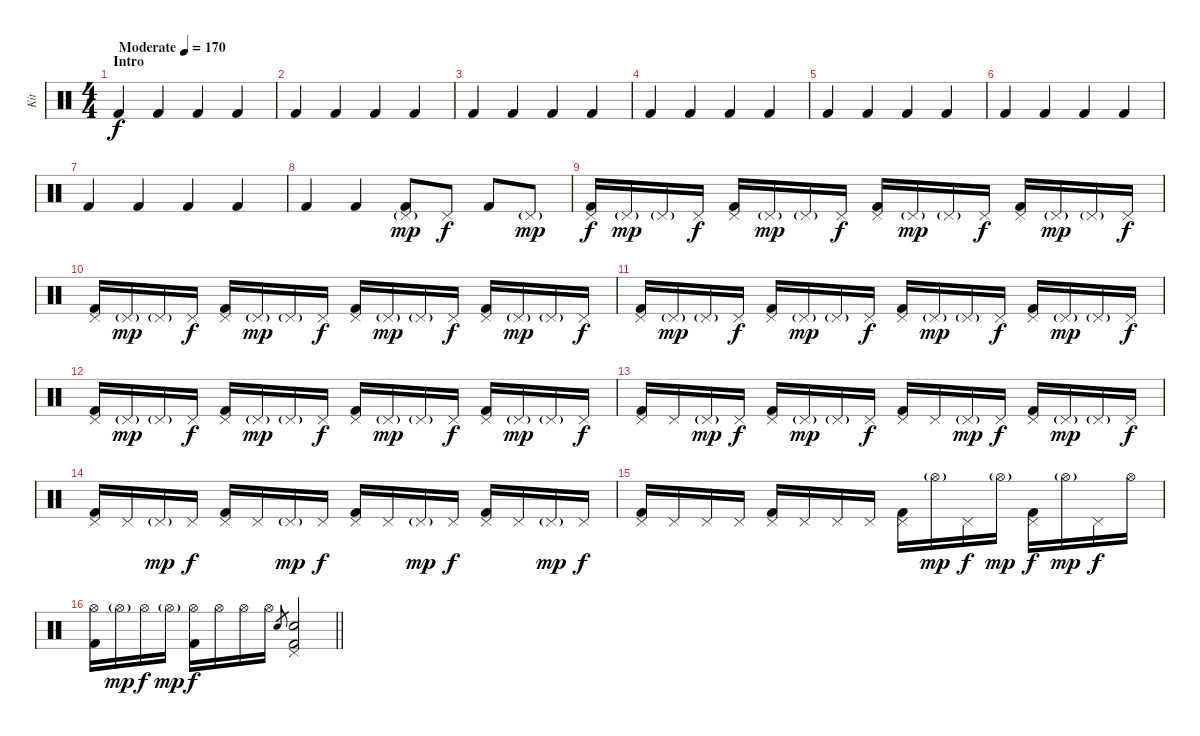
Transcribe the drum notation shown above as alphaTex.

\track ("Kit" "Kit") {instrument percussion}
\staff {score}
\articulation defaults
\ts (4 4)
\section ("" "Intro")
\tempo (170 "Moderate")
\clef neutral
\ks c "Kick (hit) 2".4{dy f} "Kick (hit) 2".4 "Kick (hit) 2".4 "Kick (hit) 2".4
|
"Kick (hit) 2".4 "Kick (hit) 2".4 "Kick (hit) 2".4 "Kick (hit) 2".4 |
"Kick (hit) 2".4 "Kick (hit) 2".4 "Kick (hit) 2".4 "Kick (hit) 2".4 |
"Kick (hit) 2".4 "Kick (hit) 2".4 "Kick (hit) 2".4 "Kick (hit) 2".4 |
"Kick (hit) 2".4 "Kick (hit) 2".4 "Kick (hit) 2".4 "Kick (hit) 2".4 |
"Kick (hit) 2".4 "Kick (hit) 2".4 "Kick (hit) 2".4 "Kick (hit) 2".4 |
"Kick (hit) 2".4 "Kick (hit) 2".4 "Kick (hit) 2".4 "Kick (hit) 2".4 |
"Kick (hit) 2".4 "Kick (hit) 2".4 ("Pedal Hi-Hat (hit)"{g} "Kick (hit) 2").8{dy mp} "Pedal Hi-Hat (hit)".8{dy f} "Kick (hit) 2".8 "Pedal Hi-Hat (hit)"{g}.8{dy mp} |
("Pedal Hi-Hat (hit)" "Kick (hit) 2").16{dy f} "Pedal Hi-Hat (hit)"{g}.16{dy mp} "Pedal Hi-Hat (hit)"{g}.16 "Pedal Hi-Hat (hit)".16{dy f} ("Pedal Hi-Hat (hit)" "Kick (hit) 2").16 "Pedal Hi-Hat (hit)"{g}.16{dy mp} "Pedal Hi-Hat (hit)"{g}.16 "Pedal Hi-Hat (hit)".16{dy f} ("Pedal Hi-Hat (hit)" "Kick (hit) 2").16 "Pedal Hi-Hat (hit)"{g}.16{dy mp} "Pedal Hi-Hat (hit)"{g}.16 "Pedal Hi-Hat (hit)".16{dy f} ("Pedal Hi-Hat (hit)" "Kick (hit) 2").16 "Pedal Hi-Hat (hit)"{g}.16{dy mp} "Pedal Hi-Hat (hit)"{g}.16 "Pedal Hi-Hat (hit)".16{dy f} |
("Pedal Hi-Hat (hit)" "Kick (hit) 2").16 "Pedal Hi-Hat (hit)"{g}.16{dy mp} "Pedal Hi-Hat (hit)"{g}.16 "Pedal Hi-Hat (hit)".16{dy f} ("Pedal Hi-Hat (hit)" "Kick (hit) 2").16 "Pedal Hi-Hat (hit)"{g}.16{dy mp} "Pedal Hi-Hat (hit)"{g}.16 "Pedal Hi-Hat (hit)".16{dy f} ("Pedal Hi-Hat (hit)" "Kick (hit) 2").16 "Pedal Hi-Hat (hit)"{g}.16{dy mp} "Pedal Hi-Hat (hit)"{g}.16 "Pedal Hi-Hat (hit)".16{dy f} ("Pedal Hi-Hat (hit)" "Kick (hit) 2").16 "Pedal Hi-Hat (hit)"{g}.16{dy mp} "Pedal Hi-Hat (hit)"{g}.16 "Pedal Hi-Hat (hit)".16{dy f} |
("Pedal Hi-Hat (hit)" "Kick (hit) 2").16 "Pedal Hi-Hat (hit)"{g}.16{dy mp} "Pedal Hi-Hat (hit)"{g}.16 "Pedal Hi-Hat (hit)".16{dy f} ("Pedal Hi-Hat (hit)" "Kick (hit) 2").16 "Pedal Hi-Hat (hit)"{g}.16{dy mp} "Pedal Hi-Hat (hit)"{g}.16 "Pedal Hi-Hat (hit)".16{dy f} ("Pedal Hi-Hat (hit)" "Kick (hit) 2").16 "Pedal Hi-Hat (hit)"{g}.16{dy mp} "Pedal Hi-Hat (hit)"{g}.16 "Pedal Hi-Hat (hit)".16{dy f} ("Pedal Hi-Hat (hit)" "Kick (hit) 2").16 "Pedal Hi-Hat (hit)"{g}.16{dy mp} "Pedal Hi-Hat (hit)"{g}.16 "Pedal Hi-Hat (hit)".16{dy f} |
("Pedal Hi-Hat (hit)" "Kick (hit) 2").16 "Pedal Hi-Hat (hit)"{g}.16{dy mp} "Pedal Hi-Hat (hit)"{g}.16 "Pedal Hi-Hat (hit)".16{dy f} ("Pedal Hi-Hat (hit)" "Kick (hit) 2").16 "Pedal Hi-Hat (hit)"{g}.16{dy mp} "Pedal Hi-Hat (hit)"{g}.16 "Pedal Hi-Hat (hit)".16{dy f} ("Pedal Hi-Hat (hit)" "Kick (hit) 2").16 "Pedal Hi-Hat (hit)"{g}.16{dy mp} "Pedal Hi-Hat (hit)"{g}.16 "Pedal Hi-Hat (hit)".16{dy f} ("Pedal Hi-Hat (hit)" "Kick (hit) 2").16 "Pedal Hi-Hat (hit)"{g}.16{dy mp} "Pedal Hi-Hat (hit)"{g}.16 "Pedal Hi-Hat (hit)".16{dy f} |
("Pedal Hi-Hat (hit)" "Kick (hit) 2").16 "Pedal Hi-Hat (hit)".16 "Pedal Hi-Hat (hit)"{g}.16{dy mp} "Pedal Hi-Hat (hit)".16{dy f} ("Pedal Hi-Hat (hit)" "Kick (hit) 2").16 "Pedal Hi-Hat (hit)"{g}.16{dy mp} "Pedal Hi-Hat (hit)"{g}.16 "Pedal Hi-Hat (hit)".16{dy f} ("Pedal Hi-Hat (hit)" "Kick (hit) 2").16 "Pedal Hi-Hat (hit)".16 "Pedal Hi-Hat (hit)"{g}.16{dy mp} "Pedal Hi-Hat (hit)".16{dy f} ("Pedal Hi-Hat (hit)" "Kick (hit) 2").16 "Pedal Hi-Hat (hit)"{g}.16{dy mp} "Pedal Hi-Hat (hit)"{g}.16 "Pedal Hi-Hat (hit)".16{dy f} |
("Pedal Hi-Hat (hit)" "Kick (hit) 2").16 "Pedal Hi-Hat (hit)".16 "Pedal Hi-Hat (hit)"{g}.16{dy mp} "Pedal Hi-Hat (hit)".16{dy f} ("Pedal Hi-Hat (hit)" "Kick (hit) 2").16 "Pedal Hi-Hat (hit)".16 "Pedal Hi-Hat (hit)"{g}.16{dy mp} "Pedal Hi-Hat (hit)".16{dy f} ("Pedal Hi-Hat (hit)" "Kick (hit) 2").16 "Pedal Hi-Hat (hit)".16 "Pedal Hi-Hat (hit)"{g}.16{dy mp} "Pedal Hi-Hat (hit)".16{dy f} ("Pedal Hi-Hat (hit)" "Kick (hit) 2").16 "Pedal Hi-Hat (hit)".16 "Pedal Hi-Hat (hit)"{g}.16{dy mp} "Pedal Hi-Hat (hit)".16{dy f} |
("Pedal Hi-Hat (hit)" "Kick (hit) 2").16 "Pedal Hi-Hat (hit)".16 "Pedal Hi-Hat (hit)".16 "Pedal Hi-Hat (hit)".16 ("Pedal Hi-Hat (hit)" "Kick (hit) 2").16 "Pedal Hi-Hat (hit)".16 "Pedal Hi-Hat (hit)".16 "Pedal Hi-Hat (hit)".16 ("Pedal Hi-Hat (hit)" "Kick (hit) 2").16 "Hi-Hat (open)"{g}.16{dy mp} "Pedal Hi-Hat (hit)".16{dy f} "Hi-Hat (open)"{g}.16{dy mp} ("Pedal Hi-Hat (hit)" "Kick (hit) 2").16{dy f} "Hi-Hat (open)"{g}.16{dy mp} "Pedal Hi-Hat (hit)".16{dy f} "Hi-Hat (open)".16 |
\barLineRight lightlight
("Hi-Hat (open)" "Kick (hit) 2").16 "Hi-Hat (open)"{g}.16{dy mp} "Hi-Hat (open)".16{dy f} "Hi-Hat (open)"{g}.16{dy mp} ("Hi-Hat (open)" "Kick (hit) 2").16{dy f} "Hi-Hat (open)".16 "Hi-Hat (open)".16 "Hi-Hat (open)".16 "Electric Snare (hit)".8{gr} ("Pedal Hi-Hat (hit)" "Electric Snare (hit)" "Kick (hit) 2").2
